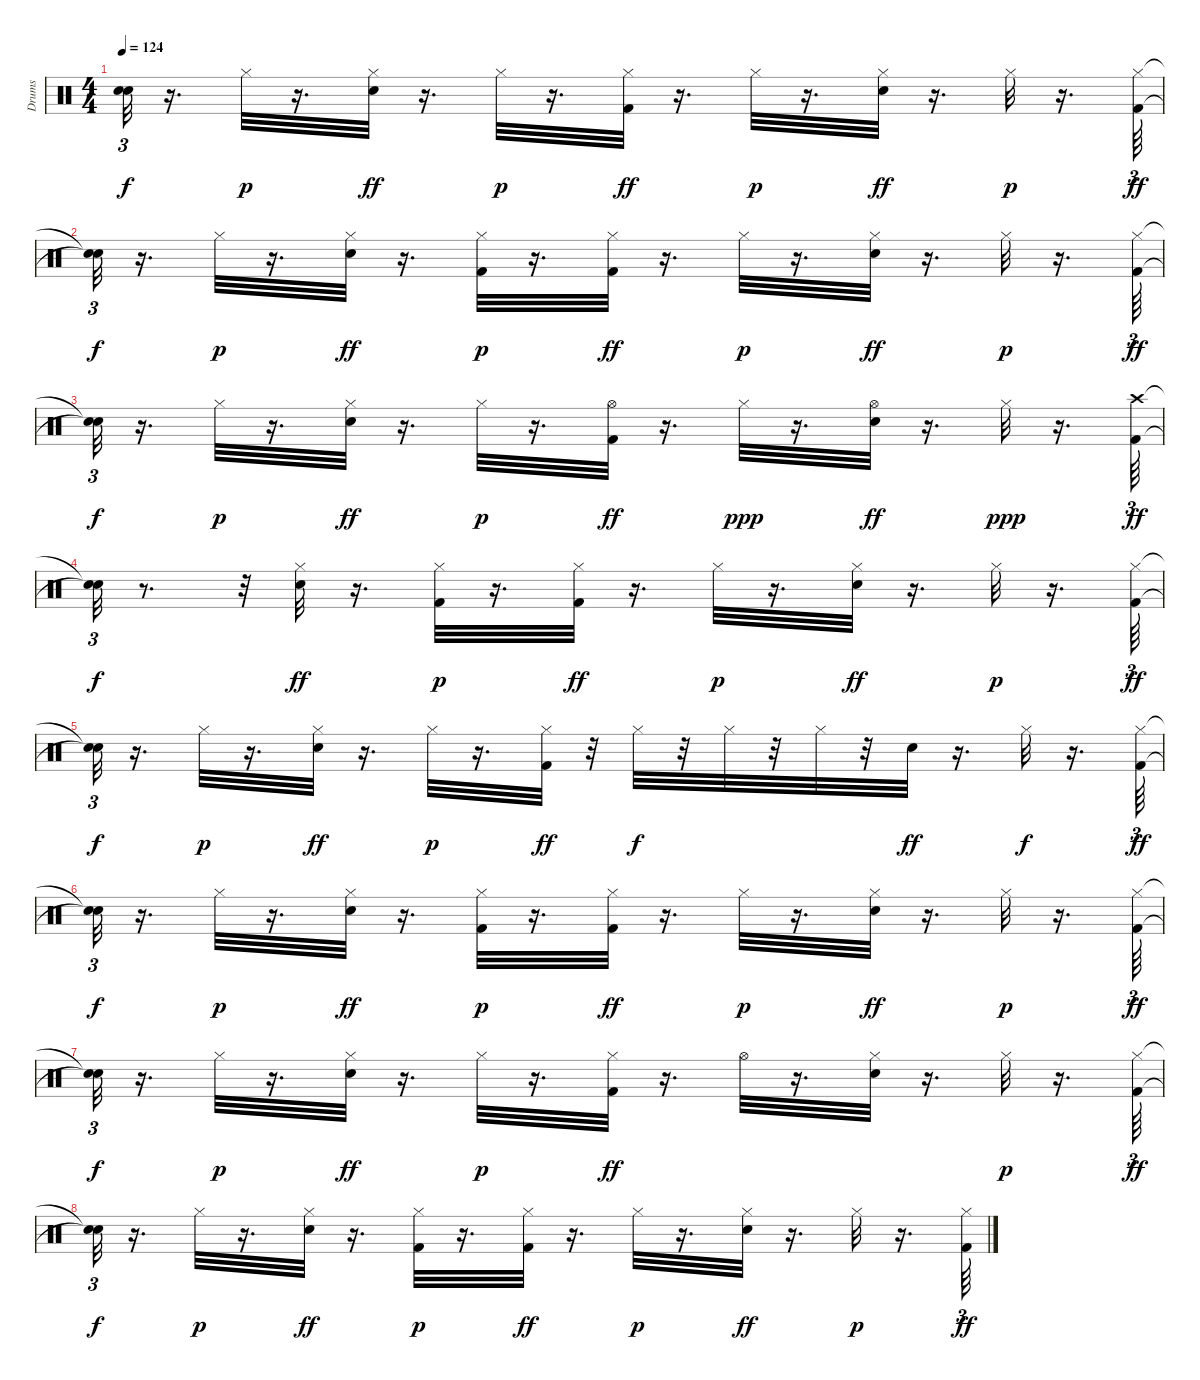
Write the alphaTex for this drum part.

\track ("Drums" "Drums") {instrument percussion}
\staff {score}
\articulation defaults
\ts (4 4)
\tempo 124
\clef neutral
\ks c
("Snare (hit)"{t} "Snare (hit)"{t}).32{tu (3 2) dy f} r.16{d} "Hi-Hat (closed)".32{dy p} r.16{d} ("Snare (hit) 2" "Hi-Hat (closed)").32{dy ff} r.16{d} "Hi-Hat (closed)".32{dy p} r.16{d} ("Kick (hit) 2" "Hi-Hat (closed)").32{dy ff} r.16{d} "Hi-Hat (closed)".32{dy p} r.16{d} ("Snare (hit) 2" "Hi-Hat (closed)").32{dy ff} r.16{d} "Hi-Hat (closed)".32{dy p} r.16{d} ("Kick (hit) 2" "Hi-Hat (closed)").64{tu (3 2) dy ff} |
("Snare (hit)"{t} "Snare (hit)"{t}).32{tu (3 2) dy f} r.16{d} "Hi-Hat (closed)".32{dy p} r.16{d} ("Snare (hit) 2" "Hi-Hat (closed)").32{dy ff} r.16{d} ("Kick (hit) 2" "Hi-Hat (closed)").32{dy p} r.16{d} ("Kick (hit) 2" "Hi-Hat (closed)").32{dy ff} r.16{d} "Hi-Hat (closed)".32{dy p} r.16{d} ("Snare (hit) 2" "Hi-Hat (closed)").32{dy ff} r.16{d} "Hi-Hat (closed)".32{dy p} r.16{d} ("Kick (hit) 2" "Hi-Hat (closed)").64{tu (3 2) dy ff} |
("Snare (hit)"{t} "Snare (hit)"{t}).32{tu (3 2) dy f} r.16{d} "Hi-Hat (closed)".32{dy p} r.16{d} ("Snare (hit) 2" "Hi-Hat (closed)").32{dy ff} r.16{d} "Hi-Hat (closed)".32{dy p} r.16{d} ("Kick (hit) 2" "Hi-Hat (open)").32{dy ff} r.16{d} "Hi-Hat (closed)".32{dy ppp} r.16{d} ("Snare (hit) 2" "Hi-Hat (open)").32{dy ff} r.16{d} "Hi-Hat (closed)".32{dy ppp} r.16{d} ("Kick (hit) 2" "Crash high (hit)").64{tu (3 2) dy ff} |
("Snare (hit)"{t} "Snare (hit)"{t}).32{tu (3 2) dy f} r.8{d} r.32 ("Snare (hit) 2" "Hi-Hat (closed)").32{dy ff} r.16{d} ("Kick (hit) 2" "Hi-Hat (closed)").32{dy p} r.16{d} ("Kick (hit) 2" "Hi-Hat (closed)").32{dy ff} r.16{d} "Hi-Hat (closed)".32{dy p} r.16{d} ("Snare (hit) 2" "Hi-Hat (closed)").32{dy ff} r.16{d} "Hi-Hat (closed)".32{dy p} r.16{d} ("Kick (hit) 2" "Hi-Hat (closed)").64{tu (3 2) dy ff} |
("Snare (hit)"{t} "Snare (hit)"{t}).32{tu (3 2) dy f} r.16{d} "Hi-Hat (closed)".32{dy p} r.16{d} ("Snare (hit) 2" "Hi-Hat (closed)").32{dy ff} r.16{d} "Hi-Hat (closed)".32{dy p} r.16{d} ("Kick (hit) 2" "Hi-Hat (closed)").32{dy ff} r.32 "Hi-Hat (closed)".32{dy f} r.32 "Hi-Hat (closed)".32 r.32 "Hi-Hat (closed)".32 r.32 "Snare (hit) 2".32{dy ff} r.16{d} "Hi-Hat (closed)".32{dy f} r.16{d} ("Kick (hit) 2" "Hi-Hat (closed)").64{tu (3 2) dy ff} |
("Snare (hit)"{t} "Snare (hit)"{t}).32{tu (3 2) dy f} r.16{d} "Hi-Hat (closed)".32{dy p} r.16{d} ("Snare (hit) 2" "Hi-Hat (closed)").32{dy ff} r.16{d} ("Kick (hit) 2" "Hi-Hat (closed)").32{dy p} r.16{d} ("Kick (hit) 2" "Hi-Hat (closed)").32{dy ff} r.16{d} "Hi-Hat (closed)".32{dy p} r.16{d} ("Snare (hit) 2" "Hi-Hat (closed)").32{dy ff} r.16{d} "Hi-Hat (closed)".32{dy p} r.16{d} ("Kick (hit) 2" "Hi-Hat (closed)").64{tu (3 2) dy ff} |
("Snare (hit)"{t} "Snare (hit)"{t}).32{tu (3 2) dy f} r.16{d} "Hi-Hat (closed)".32{dy p} r.16{d} ("Snare (hit) 2" "Hi-Hat (closed)").32{dy ff} r.16{d} "Hi-Hat (closed)".32{dy p} r.16{d} ("Kick (hit) 2" "Hi-Hat (closed)").32{dy ff} r.16{d} "Hi-Hat (open)".32 r.16{d} ("Snare (hit) 2" "Hi-Hat (closed)").32 r.16{d} "Hi-Hat (closed)".32{dy p} r.16{d} ("Kick (hit) 2" "Hi-Hat (closed)").64{tu (3 2) dy ff} |
("Snare (hit)"{t} "Snare (hit)"{t}).32{tu (3 2) dy f} r.16{d} "Hi-Hat (closed)".32{dy p} r.16{d} ("Snare (hit) 2" "Hi-Hat (closed)").32{dy ff} r.16{d} ("Kick (hit) 2" "Hi-Hat (closed)").32{dy p} r.16{d} ("Kick (hit) 2" "Hi-Hat (closed)").32{dy ff} r.16{d} "Hi-Hat (closed)".32{dy p} r.16{d} ("Snare (hit) 2" "Hi-Hat (closed)").32{dy ff} r.16{d} "Hi-Hat (closed)".32{dy p} r.16{d} ("Kick (hit) 2" "Hi-Hat (closed)").64{tu (3 2) dy ff}
